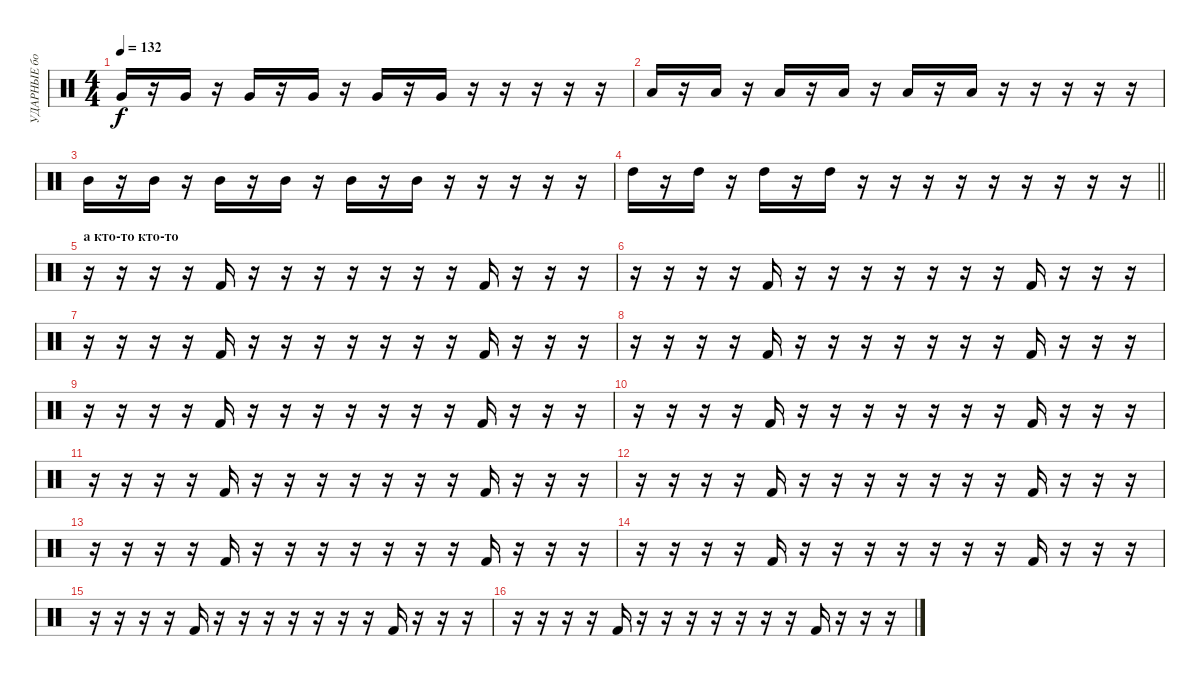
\track ("УДАРНЫЕ бочка" "УДАРНЫЕ бо") {instrument percussion}
\staff {score}
\articulation defaults
\ts (4 4)
\tempo 132
\clef neutral
\ks c "Very Low Tom (hit)".16{dy f}
r.16 "Very Low Tom (hit)".16 r.16 "Very Low Tom (hit)".16 r.16 "Very Low Tom (hit)".16 r.16 "Very Low Tom (hit)".16 r.16 "Very Low Tom (hit)".16 r.16 r.16 r.16 r.16 r.16 |
"Low Tom (hit)".16 r.16 "Low Tom (hit)".16 r.16 "Low Tom (hit)".16 r.16 "Low Tom (hit)".16 r.16 "Low Tom (hit)".16 r.16 "Low Tom (hit)".16 r.16 r.16 r.16 r.16 r.16 |
"Mid Tom (hit)".16 r.16 "Mid Tom (hit)".16 r.16 "Mid Tom (hit)".16 r.16 "Mid Tom (hit)".16 r.16 "Mid Tom (hit)".16 r.16 "Mid Tom (hit)".16 r.16 r.16 r.16 r.16 r.16 |
\barLineRight lightlight "High Tom (hit)".16
r.16 "High Tom (hit)".16 r.16 "High Tom (hit)".16 r.16 "High Tom (hit)".16 r.16 r.16 r.16 r.16 r.16 r.16 r.16 r.16 r.16 |
\section ("" "а кто-то кто-то")
r.16 r.16 r.16 r.16 "Kick (hit) 2".16 r.16 r.16 r.16 r.16 r.16 r.16 r.16 "Kick (hit) 2".16 r.16 r.16 r.16 |
r.16 r.16 r.16 r.16 "Kick (hit) 2".16 r.16 r.16 r.16 r.16 r.16 r.16 r.16 "Kick (hit) 2".16 r.16 r.16 r.16 |
r.16 r.16 r.16 r.16 "Kick (hit) 2".16 r.16 r.16 r.16 r.16 r.16 r.16 r.16 "Kick (hit) 2".16 r.16 r.16 r.16 |
r.16 r.16 r.16 r.16 "Kick (hit) 2".16 r.16 r.16 r.16 r.16 r.16 r.16 r.16 "Kick (hit) 2".16 r.16 r.16 r.16 |
r.16 r.16 r.16 r.16 "Kick (hit) 2".16 r.16 r.16 r.16 r.16 r.16 r.16 r.16 "Kick (hit) 2".16 r.16 r.16 r.16 |
r.16 r.16 r.16 r.16 "Kick (hit) 2".16 r.16 r.16 r.16 r.16 r.16 r.16 r.16 "Kick (hit) 2".16 r.16 r.16 r.16 |
r.16 r.16 r.16 r.16 "Kick (hit) 2".16 r.16 r.16 r.16 r.16 r.16 r.16 r.16 "Kick (hit) 2".16 r.16 r.16 r.16 |
r.16 r.16 r.16 r.16 "Kick (hit) 2".16 r.16 r.16 r.16 r.16 r.16 r.16 r.16 "Kick (hit) 2".16 r.16 r.16 r.16 |
r.16 r.16 r.16 r.16 "Kick (hit) 2".16 r.16 r.16 r.16 r.16 r.16 r.16 r.16 "Kick (hit) 2".16 r.16 r.16 r.16 |
r.16 r.16 r.16 r.16 "Kick (hit) 2".16 r.16 r.16 r.16 r.16 r.16 r.16 r.16 "Kick (hit) 2".16 r.16 r.16 r.16 |
r.16 r.16 r.16 r.16 "Kick (hit) 2".16 r.16 r.16 r.16 r.16 r.16 r.16 r.16 "Kick (hit) 2".16 r.16 r.16 r.16 |
r.16 r.16 r.16 r.16 "Kick (hit) 2".16 r.16 r.16 r.16 r.16 r.16 r.16 r.16 "Kick (hit) 2".16 r.16 r.16 r.16
